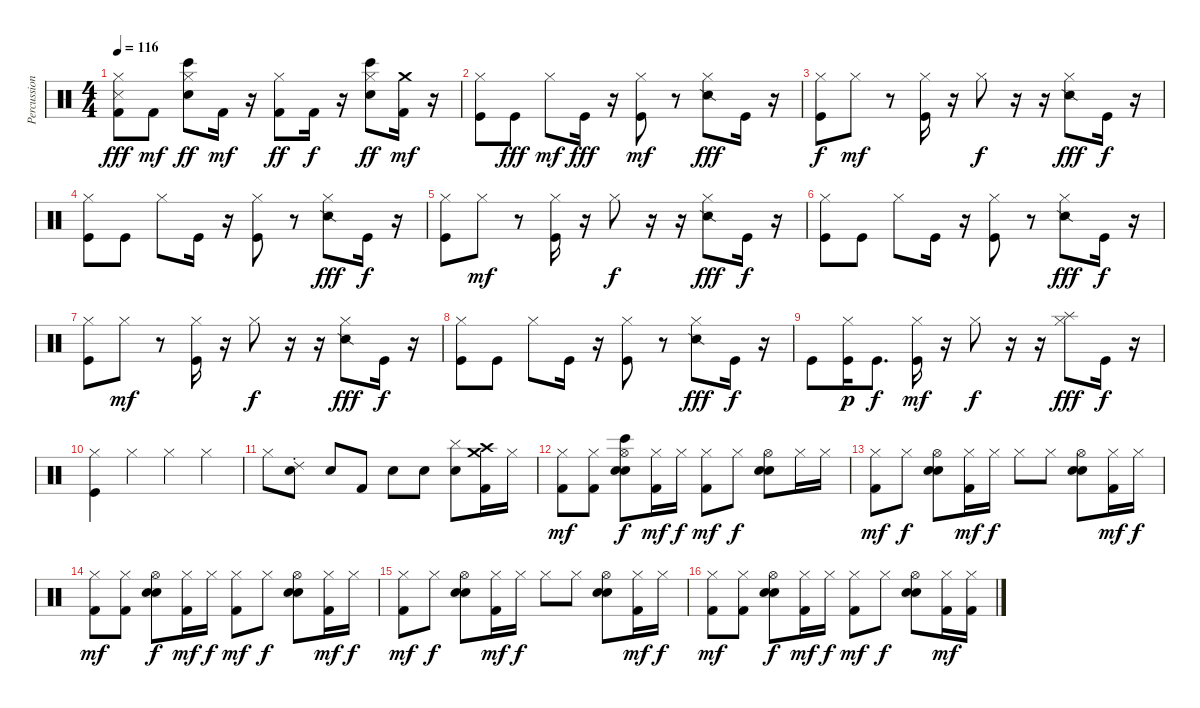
\track ("Percussion" "Percussion") {instrument percussion}
\staff {score}
\articulation defaults
\ts (4 4)
\tempo 116
\clef neutral
\ks c
("Hi-Hat (closed)" "Kick (hit) 2" "Snare (side stick) 3").8{dy fff} "Kick (hit) 2".8{dy mf} ("Hi-Hat (closed)" "Electric Snare (hit)" "Bongo High (hit)").8{dy ff} "Kick (hit) 2".16{dy mf} r.16 ("Hi-Hat (closed)" "Kick (hit) 2").8{dy ff} "Kick (hit) 2".16{dy f} r.16 ("Hi-Hat (closed)" "Electric Snare (hit)" "Bongo High (hit)").8{dy ff} ("Kick (hit) 2" "Crash medium (hit)").16{dy mf} r.16 |
("Hi-Hat (closed)" "Kick (hit)").8 "Kick (hit)".8{dy fff} "Hi-Hat (closed)".8{dy mf} "Kick (hit)".16{dy fff} r.16 ("Hi-Hat (closed)" "Kick (hit)").8{dy mf} r.8 ("Hi-Hat (closed)" "Snare (side stick) 2").8{dy fff} "Kick (hit)".16 r.16 |
("Hi-Hat (closed)" "Kick (hit)").8{dy f} "Hi-Hat (closed)".8{dy mf} r.8 ("Hi-Hat (closed)" "Kick (hit)").16 r.16 "Hi-Hat (closed)".8{dy f} r.16 r.16 ("Hi-Hat (closed)" "Snare (side stick) 2").8{dy fff} "Kick (hit)".16{dy f} r.16 |
("Hi-Hat (closed)" "Kick (hit)").8 "Kick (hit)".8 "Hi-Hat (closed)".8 "Kick (hit)".16 r.16 ("Hi-Hat (closed)" "Kick (hit)").8 r.8 ("Hi-Hat (closed)" "Snare (side stick) 2").8{dy fff} "Kick (hit)".16{dy f} r.16 |
("Hi-Hat (closed)" "Kick (hit)").8 "Hi-Hat (closed)".8{dy mf} r.8 ("Hi-Hat (closed)" "Kick (hit)").16 r.16 "Hi-Hat (closed)".8{dy f} r.16 r.16 ("Hi-Hat (closed)" "Snare (side stick) 2").8{dy fff} "Kick (hit)".16{dy f} r.16 |
("Hi-Hat (closed)" "Kick (hit)").8 "Kick (hit)".8 "Hi-Hat (closed)".8 "Kick (hit)".16 r.16 ("Hi-Hat (closed)" "Kick (hit)").8 r.8 ("Hi-Hat (closed)" "Snare (side stick) 2").8{dy fff} "Kick (hit)".16{dy f} r.16 |
("Hi-Hat (closed)" "Kick (hit)").8 "Hi-Hat (closed)".8{dy mf} r.8 ("Hi-Hat (closed)" "Kick (hit)").16 r.16 "Hi-Hat (closed)".8{dy f} r.16 r.16 ("Hi-Hat (closed)" "Snare (side stick) 2").8{dy fff} "Kick (hit)".16{dy f} r.16 |
("Hi-Hat (closed)" "Kick (hit)").8 "Kick (hit)".8 "Hi-Hat (closed)".8 "Kick (hit)".16 r.16 ("Hi-Hat (closed)" "Kick (hit)").8 r.8 ("Hi-Hat (closed)" "Snare (side stick) 2").8{dy fff} "Kick (hit)".16{dy f} r.16 |
"Kick (hit)".8 ("Hi-Hat (closed)" "Kick (hit)").16{dy p} "Kick (hit)".8{d dy f} ("Hi-Hat (closed)" "Kick (hit)").16{dy mf} r.16 "Hi-Hat (closed)".8{dy f} r.16 r.16 ("Hi-Hat (closed)" "Splash (hit)").8{dy fff} "Kick (hit)".16{dy f} r.16 |
("Hi-Hat (closed)" "Kick (hit)").4 "Hi-Hat (closed)".4 "Hi-Hat (closed)".4 "Hi-Hat (closed)".4 |
"Hi-Hat (closed)".8 ("Electric Snare (hit)" "Ride (choke) 2").8 "Electric Snare (hit)".8 "Kick (hit) 2".8 "Electric Snare (hit)".8 "Electric Snare (hit)".8 ("Electric Snare (hit)" "Cymbal (hit)").8 ("Crash high (hit)" "Crash medium (hit)" "Kick (hit) 2").16 "Hi-Hat (closed)".16 |
("Hi-Hat (closed)" "Kick (hit) 2").8{dy mf} ("Hi-Hat (closed)" "Kick (hit) 2").8 ("Hi-Hat (open)" "Electric Snare (hit)" "Hand Clap (hit)" "Bongo High (hit)").8{dy f} ("Hi-Hat (closed)" "Kick (hit) 2").16{dy mf} "Hi-Hat (closed)".16{dy f} ("Hi-Hat (closed)" "Kick (hit) 2").8{dy mf} "Hi-Hat (closed)".8{dy f} ("Hi-Hat (open)" "Electric Snare (hit)" "Hand Clap (hit)").8 "Hi-Hat (closed)".16 "Hi-Hat (closed)".16 |
("Hi-Hat (closed)" "Kick (hit) 2").8{dy mf} "Hi-Hat (closed)".8{dy f} ("Hi-Hat (open)" "Electric Snare (hit)" "Hand Clap (hit)").8 ("Hi-Hat (closed)" "Kick (hit) 2").16{dy mf} "Hi-Hat (closed)".16{dy f} "Hi-Hat (closed)".8 "Hi-Hat (closed)".8 ("Hi-Hat (open)" "Electric Snare (hit)" "Hand Clap (hit)").8 ("Hi-Hat (closed)" "Kick (hit) 2").16{dy mf} "Hi-Hat (closed)".16{dy f} |
("Hi-Hat (closed)" "Kick (hit) 2").8{dy mf} ("Hi-Hat (closed)" "Kick (hit) 2").8 ("Hi-Hat (open)" "Electric Snare (hit)" "Hand Clap (hit)").8{dy f} ("Hi-Hat (closed)" "Kick (hit) 2").16{dy mf} "Hi-Hat (closed)".16{dy f} ("Hi-Hat (closed)" "Kick (hit) 2").8{dy mf} "Hi-Hat (closed)".8{dy f} ("Hi-Hat (open)" "Electric Snare (hit)" "Hand Clap (hit)").8 ("Hi-Hat (closed)" "Kick (hit) 2").16{dy mf} "Hi-Hat (closed)".16{dy f} |
("Hi-Hat (closed)" "Kick (hit) 2").8{dy mf} "Hi-Hat (closed)".8{dy f} ("Hi-Hat (open)" "Electric Snare (hit)" "Hand Clap (hit)").8 ("Hi-Hat (closed)" "Kick (hit) 2").16{dy mf} "Hi-Hat (closed)".16{dy f} "Hi-Hat (closed)".8 "Hi-Hat (closed)".8 ("Hi-Hat (open)" "Electric Snare (hit)" "Hand Clap (hit)").8 ("Hi-Hat (closed)" "Kick (hit) 2").16{dy mf} "Hi-Hat (closed)".16{dy f} |
("Hi-Hat (closed)" "Kick (hit) 2").8{dy mf} ("Hi-Hat (closed)" "Kick (hit) 2").8 ("Hi-Hat (open)" "Electric Snare (hit)" "Hand Clap (hit)").8{dy f} ("Hi-Hat (closed)" "Kick (hit) 2").16{dy mf} "Hi-Hat (closed)".16{dy f} ("Hi-Hat (closed)" "Kick (hit) 2").8{dy mf} "Hi-Hat (closed)".8{dy f} ("Hi-Hat (open)" "Electric Snare (hit)" "Hand Clap (hit)").8 ("Hi-Hat (closed)" "Kick (hit) 2").16{dy mf} ("Hi-Hat (closed)" "Kick (hit) 2").16
